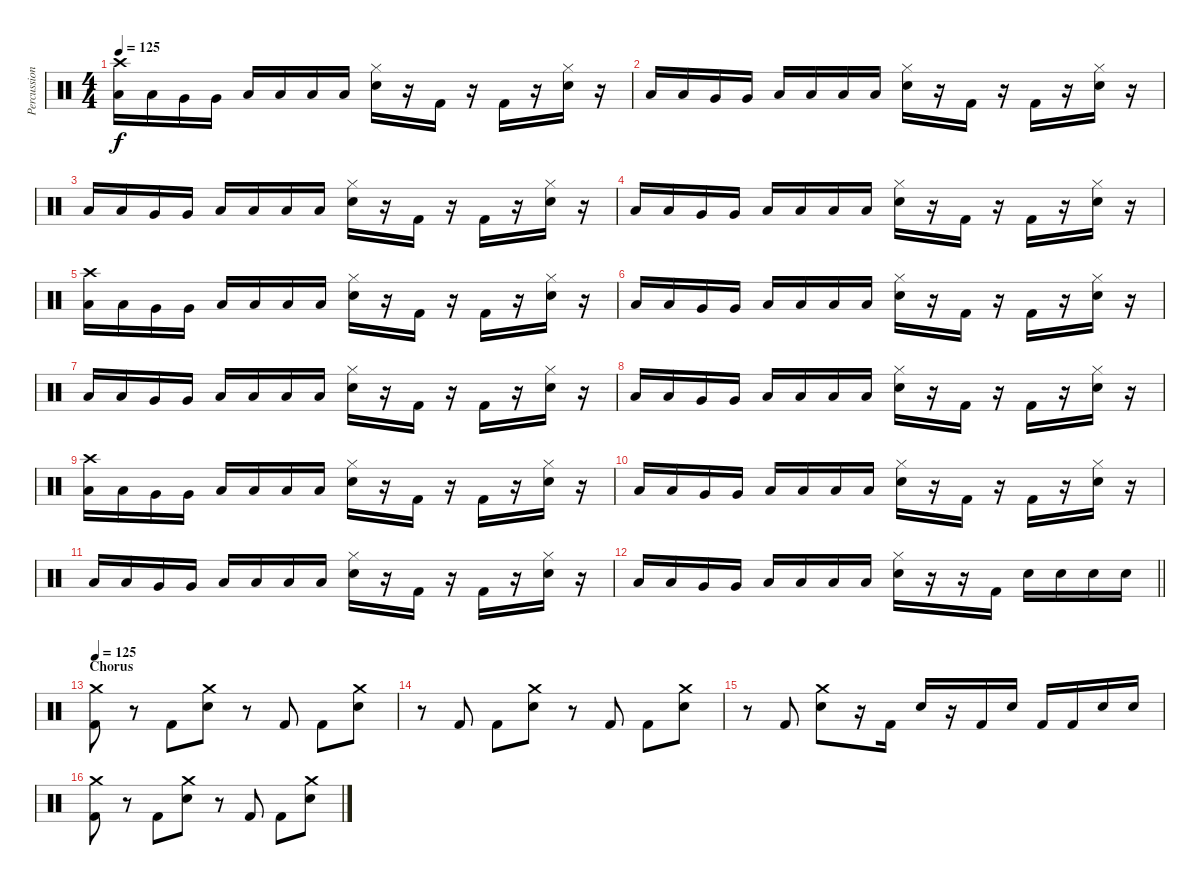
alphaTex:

\track ("Percussion" "Percussion") {instrument percussion}
\staff {score}
\articulation defaults
\ts (4 4)
\tempo 125
\clef neutral
\ks c
("Crash high (hit)" "Low Tom (hit)").16{dy f} "Low Tom (hit)".16 "Very Low Tom (hit)".16 "Very Low Tom (hit)".16 "Low Floor Tom (hit)".16 "Low Floor Tom (hit)".16 "Low Tom (hit)".16 "Low Tom (hit)".16 ("Hi-Hat (closed)" "Electric Snare (hit)").16 r.16 "Kick (hit) 2".16 r.16 "Kick (hit) 2".16 r.16 ("Hi-Hat (closed)" "Electric Snare (hit)").16 r.16 |
"Low Tom (hit)".16 "Low Tom (hit)".16 "Very Low Tom (hit)".16 "Very Low Tom (hit)".16 "Low Floor Tom (hit)".16 "Low Floor Tom (hit)".16 "Low Tom (hit)".16 "Low Tom (hit)".16 ("Hi-Hat (closed)" "Electric Snare (hit)").16 r.16 "Kick (hit) 2".16 r.16 "Kick (hit) 2".16 r.16 ("Hi-Hat (closed)" "Electric Snare (hit)").16 r.16 |
"Low Tom (hit)".16 "Low Tom (hit)".16 "Very Low Tom (hit)".16 "Very Low Tom (hit)".16 "Low Floor Tom (hit)".16 "Low Floor Tom (hit)".16 "Low Tom (hit)".16 "Low Tom (hit)".16 ("Hi-Hat (closed)" "Electric Snare (hit)").16 r.16 "Kick (hit) 2".16 r.16 "Kick (hit) 2".16 r.16 ("Hi-Hat (closed)" "Electric Snare (hit)").16 r.16 |
"Low Tom (hit)".16 "Low Tom (hit)".16 "Very Low Tom (hit)".16 "Very Low Tom (hit)".16 "Low Floor Tom (hit)".16 "Low Floor Tom (hit)".16 "Low Tom (hit)".16 "Low Tom (hit)".16 ("Hi-Hat (closed)" "Electric Snare (hit)").16 r.16 "Kick (hit) 2".16 r.16 "Kick (hit) 2".16 r.16 ("Hi-Hat (closed)" "Electric Snare (hit)").16 r.16 |
("Crash high (hit)" "Low Tom (hit)").16 "Low Tom (hit)".16 "Very Low Tom (hit)".16 "Very Low Tom (hit)".16 "Low Floor Tom (hit)".16 "Low Floor Tom (hit)".16 "Low Tom (hit)".16 "Low Tom (hit)".16 ("Hi-Hat (closed)" "Electric Snare (hit)").16 r.16 "Kick (hit) 2".16 r.16 "Kick (hit) 2".16 r.16 ("Hi-Hat (closed)" "Electric Snare (hit)").16 r.16 |
"Low Tom (hit)".16 "Low Tom (hit)".16 "Very Low Tom (hit)".16 "Very Low Tom (hit)".16 "Low Floor Tom (hit)".16 "Low Floor Tom (hit)".16 "Low Tom (hit)".16 "Low Tom (hit)".16 ("Hi-Hat (closed)" "Electric Snare (hit)").16 r.16 "Kick (hit) 2".16 r.16 "Kick (hit) 2".16 r.16 ("Hi-Hat (closed)" "Electric Snare (hit)").16 r.16 |
"Low Tom (hit)".16 "Low Tom (hit)".16 "Very Low Tom (hit)".16 "Very Low Tom (hit)".16 "Low Floor Tom (hit)".16 "Low Floor Tom (hit)".16 "Low Tom (hit)".16 "Low Tom (hit)".16 ("Hi-Hat (closed)" "Electric Snare (hit)").16 r.16 "Kick (hit) 2".16 r.16 "Kick (hit) 2".16 r.16 ("Hi-Hat (closed)" "Electric Snare (hit)").16 r.16 |
"Low Tom (hit)".16 "Low Tom (hit)".16 "Very Low Tom (hit)".16 "Very Low Tom (hit)".16 "Low Floor Tom (hit)".16 "Low Floor Tom (hit)".16 "Low Tom (hit)".16 "Low Tom (hit)".16 ("Hi-Hat (closed)" "Electric Snare (hit)").16 r.16 "Kick (hit) 2".16 r.16 "Kick (hit) 2".16 r.16 ("Hi-Hat (closed)" "Electric Snare (hit)").16 r.16 |
("Crash high (hit)" "Low Tom (hit)").16 "Low Tom (hit)".16 "Very Low Tom (hit)".16 "Very Low Tom (hit)".16 "Low Floor Tom (hit)".16 "Low Floor Tom (hit)".16 "Low Tom (hit)".16 "Low Tom (hit)".16 ("Hi-Hat (closed)" "Electric Snare (hit)").16 r.16 "Kick (hit) 2".16 r.16 "Kick (hit) 2".16 r.16 ("Hi-Hat (closed)" "Electric Snare (hit)").16 r.16 |
"Low Tom (hit)".16 "Low Tom (hit)".16 "Very Low Tom (hit)".16 "Very Low Tom (hit)".16 "Low Floor Tom (hit)".16 "Low Floor Tom (hit)".16 "Low Tom (hit)".16 "Low Tom (hit)".16 ("Hi-Hat (closed)" "Electric Snare (hit)").16 r.16 "Kick (hit) 2".16 r.16 "Kick (hit) 2".16 r.16 ("Hi-Hat (closed)" "Electric Snare (hit)").16 r.16 |
"Low Tom (hit)".16 "Low Tom (hit)".16 "Very Low Tom (hit)".16 "Very Low Tom (hit)".16 "Low Floor Tom (hit)".16 "Low Floor Tom (hit)".16 "Low Tom (hit)".16 "Low Tom (hit)".16 ("Hi-Hat (closed)" "Electric Snare (hit)").16 r.16 "Kick (hit) 2".16 r.16 "Kick (hit) 2".16 r.16 ("Hi-Hat (closed)" "Electric Snare (hit)").16 r.16 |
\barLineRight lightlight "Low Tom (hit)".16 "Low Tom (hit)".16 "Very Low Tom (hit)".16 "Very Low Tom (hit)".16 "Low Floor Tom (hit)".16 "Low Floor Tom (hit)".16 "Low Tom (hit)".16 "Low Tom (hit)".16
("Hi-Hat (closed)" "Electric Snare (hit)").16 r.16 r.16 "Kick (hit) 2".16 "Electric Snare (hit)".16 "Electric Snare (hit)".16 "Electric Snare (hit)".16 "Electric Snare (hit)".16 |
\section ("" "Chorus")
\tempo 125
("Crash medium (hit)" "Kick (hit) 2").8 r.8 "Kick (hit) 2".8 ("Crash medium (hit)" "Electric Snare (hit)").8 r.8 "Kick (hit) 2".8 "Kick (hit) 2".8 ("Crash medium (hit)" "Electric Snare (hit)").8 |
r.8 "Kick (hit) 2".8 "Kick (hit) 2".8 ("Crash medium (hit)" "Electric Snare (hit)").8 r.8 "Kick (hit) 2".8 "Kick (hit) 2".8 ("Crash medium (hit)" "Electric Snare (hit)").8 |
r.8 "Kick (hit) 2".8 ("Crash medium (hit)" "Electric Snare (hit)").8 r.16 "Kick (hit) 2".16 "Electric Snare (hit)".16 r.16 "Kick (hit) 2".16 "Electric Snare (hit)".16 "Kick (hit) 2".16 "Kick (hit) 2".16 "Electric Snare (hit)".16 "Electric Snare (hit)".16 |
("Crash medium (hit)" "Kick (hit) 2").8 r.8 "Kick (hit) 2".8 ("Crash medium (hit)" "Electric Snare (hit)").8 r.8 "Kick (hit) 2".8 "Kick (hit) 2".8 ("Crash medium (hit)" "Electric Snare (hit)").8
